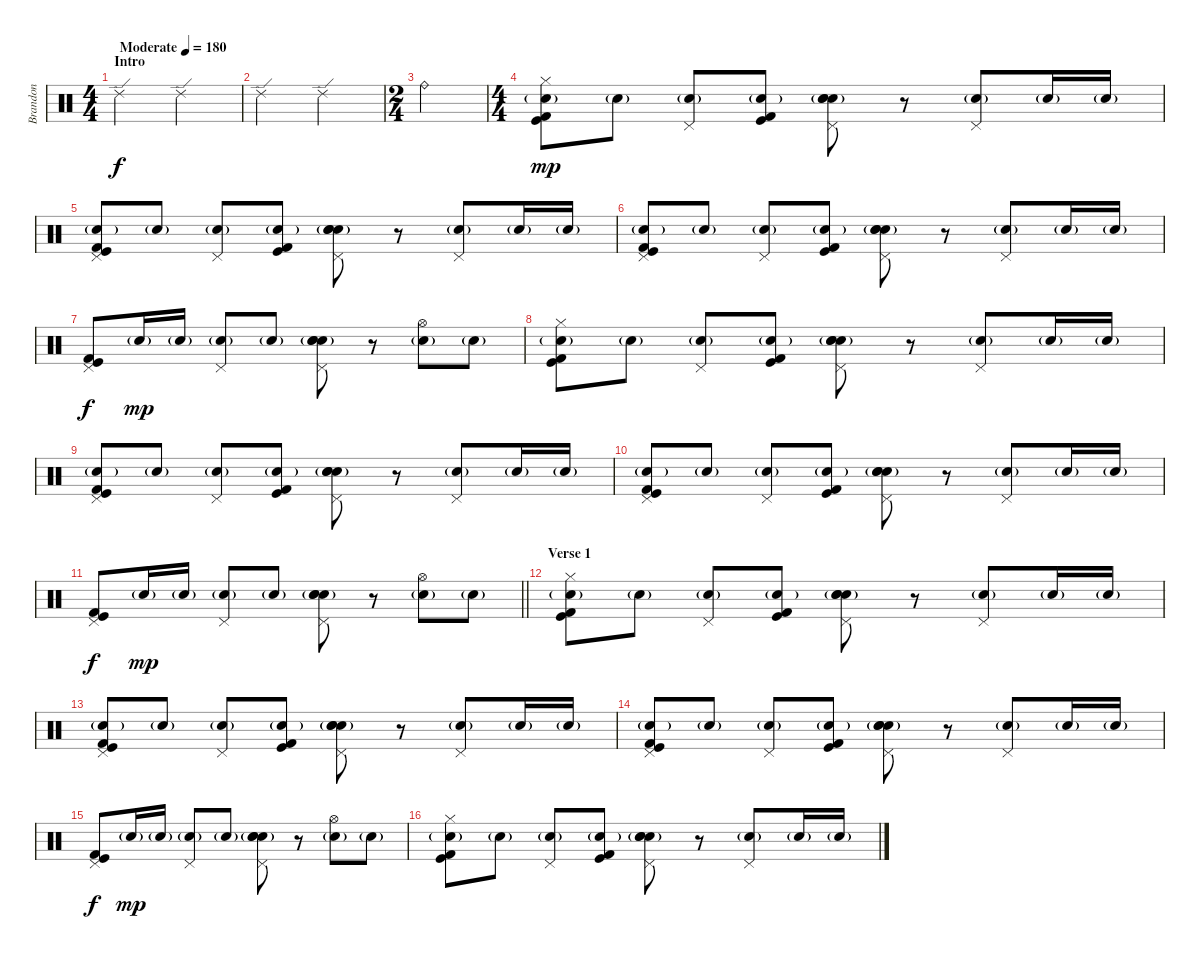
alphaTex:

\track ("Brandon" "Brandon") {instrument percussion}
\staff {score}
\articulation defaults
\ts (4 4)
\section ("" "Intro")
\tempo (180 "Moderate")
\clef neutral
\ks c "Ride (edge) 2".2{dy f} "Ride (edge) 2".2
|
"Ride (edge) 2".2 "Ride (edge) 2".2 |
\ts (2 4)
"Ride (bell)".2 |
\ts (4 4)
("Hi-Hat (closed)" "Snare (hit) 2"{g} "Kick (hit)" "Kick (hit) 2").8{dy mp} "Snare (hit) 2"{g}.8 ("Pedal Hi-Hat (hit)" "Snare (hit) 2"{g}).8 ("Snare (hit) 2"{g} "Kick (hit)" "Kick (hit) 2").8 ("Pedal Hi-Hat (hit)" "Electric Snare (hit)" "Snare (hit) 2" "Snare (hit) 2"{g}).8 r.8 ("Pedal Hi-Hat (hit)" "Snare (hit) 2"{g}).8 "Snare (hit) 2"{g}.16 "Snare (hit) 2"{g}.16 |
("Pedal Hi-Hat (hit)" "Snare (hit) 2"{g} "Kick (hit)" "Kick (hit) 2").8 "Snare (hit) 2"{g}.8 ("Pedal Hi-Hat (hit)" "Snare (hit) 2"{g}).8 ("Snare (hit) 2"{g} "Kick (hit)" "Kick (hit) 2").8 ("Pedal Hi-Hat (hit)" "Electric Snare (hit)" "Snare (hit) 2" "Snare (hit) 2"{g}).8 r.8 ("Pedal Hi-Hat (hit)" "Snare (hit) 2"{g}).8 "Snare (hit) 2"{g}.16 "Snare (hit) 2"{g}.16 |
("Pedal Hi-Hat (hit)" "Snare (hit) 2"{g} "Kick (hit)" "Kick (hit) 2").8 "Snare (hit) 2"{g}.8 ("Pedal Hi-Hat (hit)" "Snare (hit) 2"{g}).8 ("Snare (hit) 2"{g} "Kick (hit)" "Kick (hit) 2").8 ("Pedal Hi-Hat (hit)" "Electric Snare (hit)" "Snare (hit) 2" "Snare (hit) 2"{g}).8 r.8 ("Pedal Hi-Hat (hit)" "Snare (hit) 2"{g}).8 "Snare (hit) 2"{g}.16 "Snare (hit) 2"{g}.16 |
("Pedal Hi-Hat (hit)" "Kick (hit)" "Kick (hit) 2").8{dy f} "Snare (hit) 2"{g}.16{dy mp} "Snare (hit) 2"{g}.16 ("Pedal Hi-Hat (hit)" "Snare (hit) 2"{g}).8 "Snare (hit) 2"{g}.8 ("Pedal Hi-Hat (hit)" "Electric Snare (hit)" "Snare (hit) 2" "Snare (hit) 2"{g}).8 r.8 ("Hi-Hat (open)" "Snare (hit) 2"{g}).8 "Snare (hit) 2"{g}.8 |
("Hi-Hat (closed)" "Snare (hit) 2"{g} "Kick (hit)" "Kick (hit) 2").8 "Snare (hit) 2"{g}.8 ("Pedal Hi-Hat (hit)" "Snare (hit) 2"{g}).8 ("Snare (hit) 2"{g} "Kick (hit)" "Kick (hit) 2").8 ("Pedal Hi-Hat (hit)" "Electric Snare (hit)" "Snare (hit) 2" "Snare (hit) 2"{g}).8 r.8 ("Pedal Hi-Hat (hit)" "Snare (hit) 2"{g}).8 "Snare (hit) 2"{g}.16 "Snare (hit) 2"{g}.16 |
("Pedal Hi-Hat (hit)" "Snare (hit) 2"{g} "Kick (hit)" "Kick (hit) 2").8 "Snare (hit) 2"{g}.8 ("Pedal Hi-Hat (hit)" "Snare (hit) 2"{g}).8 ("Snare (hit) 2"{g} "Kick (hit)" "Kick (hit) 2").8 ("Pedal Hi-Hat (hit)" "Electric Snare (hit)" "Snare (hit) 2" "Snare (hit) 2"{g}).8 r.8 ("Pedal Hi-Hat (hit)" "Snare (hit) 2"{g}).8 "Snare (hit) 2"{g}.16 "Snare (hit) 2"{g}.16 |
("Pedal Hi-Hat (hit)" "Snare (hit) 2"{g} "Kick (hit)" "Kick (hit) 2").8 "Snare (hit) 2"{g}.8 ("Pedal Hi-Hat (hit)" "Snare (hit) 2"{g}).8 ("Snare (hit) 2"{g} "Kick (hit)" "Kick (hit) 2").8 ("Pedal Hi-Hat (hit)" "Electric Snare (hit)" "Snare (hit) 2" "Snare (hit) 2"{g}).8 r.8 ("Pedal Hi-Hat (hit)" "Snare (hit) 2"{g}).8 "Snare (hit) 2"{g}.16 "Snare (hit) 2"{g}.16 |
\barLineRight lightlight
("Pedal Hi-Hat (hit)" "Kick (hit)" "Kick (hit) 2").8{dy f} "Snare (hit) 2"{g}.16{dy mp} "Snare (hit) 2"{g}.16 ("Pedal Hi-Hat (hit)" "Snare (hit) 2"{g}).8 "Snare (hit) 2"{g}.8 ("Pedal Hi-Hat (hit)" "Electric Snare (hit)" "Snare (hit) 2" "Snare (hit) 2"{g}).8 r.8 ("Hi-Hat (open)" "Snare (hit) 2"{g}).8 "Snare (hit) 2"{g}.8 |
\section ("" "Verse 1")
("Hi-Hat (closed)" "Snare (hit) 2"{g} "Kick (hit)" "Kick (hit) 2").8 "Snare (hit) 2"{g}.8 ("Pedal Hi-Hat (hit)" "Snare (hit) 2"{g}).8 ("Snare (hit) 2"{g} "Kick (hit)" "Kick (hit) 2").8 ("Pedal Hi-Hat (hit)" "Electric Snare (hit)" "Snare (hit) 2" "Snare (hit) 2"{g}).8 r.8 ("Pedal Hi-Hat (hit)" "Snare (hit) 2"{g}).8 "Snare (hit) 2"{g}.16 "Snare (hit) 2"{g}.16 |
("Pedal Hi-Hat (hit)" "Snare (hit) 2"{g} "Kick (hit)" "Kick (hit) 2").8 "Snare (hit) 2"{g}.8 ("Pedal Hi-Hat (hit)" "Snare (hit) 2"{g}).8 ("Snare (hit) 2"{g} "Kick (hit)" "Kick (hit) 2").8 ("Pedal Hi-Hat (hit)" "Electric Snare (hit)" "Snare (hit) 2" "Snare (hit) 2"{g}).8 r.8 ("Pedal Hi-Hat (hit)" "Snare (hit) 2"{g}).8 "Snare (hit) 2"{g}.16 "Snare (hit) 2"{g}.16 |
("Pedal Hi-Hat (hit)" "Snare (hit) 2"{g} "Kick (hit)" "Kick (hit) 2").8 "Snare (hit) 2"{g}.8 ("Pedal Hi-Hat (hit)" "Snare (hit) 2"{g}).8 ("Snare (hit) 2"{g} "Kick (hit)" "Kick (hit) 2").8 ("Pedal Hi-Hat (hit)" "Electric Snare (hit)" "Snare (hit) 2" "Snare (hit) 2"{g}).8 r.8 ("Pedal Hi-Hat (hit)" "Snare (hit) 2"{g}).8 "Snare (hit) 2"{g}.16 "Snare (hit) 2"{g}.16 |
("Pedal Hi-Hat (hit)" "Kick (hit)" "Kick (hit) 2").8{dy f} "Snare (hit) 2"{g}.16{dy mp} "Snare (hit) 2"{g}.16 ("Pedal Hi-Hat (hit)" "Snare (hit) 2"{g}).8 "Snare (hit) 2"{g}.8 ("Pedal Hi-Hat (hit)" "Electric Snare (hit)" "Snare (hit) 2" "Snare (hit) 2"{g}).8 r.8 ("Hi-Hat (open)" "Snare (hit) 2"{g}).8 "Snare (hit) 2"{g}.8 |
("Hi-Hat (closed)" "Snare (hit) 2"{g} "Kick (hit)" "Kick (hit) 2").8 "Snare (hit) 2"{g}.8 ("Pedal Hi-Hat (hit)" "Snare (hit) 2"{g}).8 ("Snare (hit) 2"{g} "Kick (hit)" "Kick (hit) 2").8 ("Pedal Hi-Hat (hit)" "Electric Snare (hit)" "Snare (hit) 2" "Snare (hit) 2"{g}).8 r.8 ("Pedal Hi-Hat (hit)" "Snare (hit) 2"{g}).8 "Snare (hit) 2"{g}.16 "Snare (hit) 2"{g}.16
